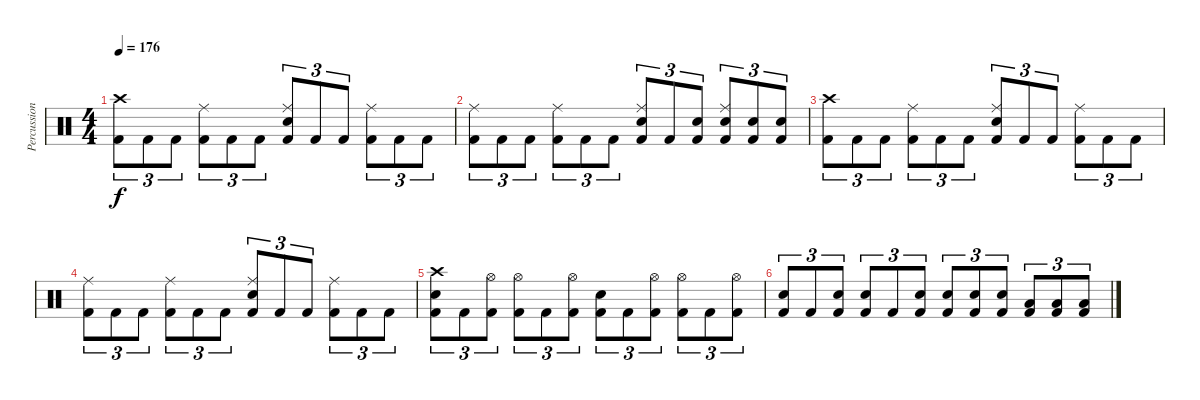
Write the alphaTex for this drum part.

\track ("Percussion" "Percussion") {instrument percussion}
\staff {score}
\articulation defaults
\ts (4 4)
\tempo 176
\clef neutral
\ks c
("Crash high (hit)" "Kick (hit) 2").8{tu (3 2) dy f} "Kick (hit) 2".8{tu (3 2)} "Kick (hit) 2".8{tu (3 2)} ("Ride (middle)" "Kick (hit) 2").8{tu (3 2)} "Kick (hit) 2".8{tu (3 2)} "Kick (hit) 2".8{tu (3 2)} ("Ride (middle)" "Snare (hit) 2" "Kick (hit) 2").8{tu (3 2)} "Kick (hit) 2".8{tu (3 2)} "Kick (hit) 2".8{tu (3 2)} ("Ride (middle)" "Kick (hit) 2").8{tu (3 2)} "Kick (hit) 2".8{tu (3 2)} "Kick (hit) 2".8{tu (3 2)} |
("Ride (middle)" "Kick (hit) 2").8{tu (3 2)} "Kick (hit) 2".8{tu (3 2)} "Kick (hit) 2".8{tu (3 2)} ("Ride (middle)" "Kick (hit) 2").8{tu (3 2)} "Kick (hit) 2".8{tu (3 2)} "Kick (hit) 2".8{tu (3 2)} ("Ride (middle)" "Snare (hit) 2" "Kick (hit) 2").8{tu (3 2)} "Kick (hit) 2".8{tu (3 2)} ("Snare (hit) 2" "Kick (hit) 2").8{tu (3 2)} ("Ride (middle)" "Snare (hit) 2" "Kick (hit) 2").8{tu (3 2)} ("Snare (hit) 2" "Kick (hit) 2").8{tu (3 2)} ("Snare (hit) 2" "Kick (hit) 2").8{tu (3 2)} |
("Crash high (hit)" "Kick (hit) 2").8{tu (3 2) volume 0} "Kick (hit) 2".8{tu (3 2)} "Kick (hit) 2".8{tu (3 2)} ("Ride (middle)" "Kick (hit) 2").8{tu (3 2)} "Kick (hit) 2".8{tu (3 2)} "Kick (hit) 2".8{tu (3 2)} ("Ride (middle)" "Snare (hit) 2" "Kick (hit) 2").8{tu (3 2)} "Kick (hit) 2".8{tu (3 2)} "Kick (hit) 2".8{tu (3 2)} ("Ride (middle)" "Kick (hit) 2").8{tu (3 2)} "Kick (hit) 2".8{tu (3 2)} "Kick (hit) 2".8{tu (3 2)} |
("Ride (middle)" "Kick (hit) 2").8{tu (3 2)} "Kick (hit) 2".8{tu (3 2)} "Kick (hit) 2".8{tu (3 2)} ("Ride (middle)" "Kick (hit) 2").8{tu (3 2)} "Kick (hit) 2".8{tu (3 2)} "Kick (hit) 2".8{tu (3 2)} ("Ride (middle)" "Snare (hit) 2" "Kick (hit) 2").8{tu (3 2)} "Kick (hit) 2".8{tu (3 2)} "Kick (hit) 2".8{tu (3 2)} ("Ride (middle)" "Kick (hit) 2").8{tu (3 2)} "Kick (hit) 2".8{tu (3 2)} "Kick (hit) 2".8{tu (3 2)} |
("Crash high (hit)" "Snare (hit) 2" "Kick (hit) 2").8{tu (3 2)} "Kick (hit) 2".8{tu (3 2)} ("Hi-Hat (open)" "Kick (hit) 2").8{tu (3 2)} ("Hi-Hat (open)" "Kick (hit) 2").8{tu (3 2)} "Kick (hit) 2".8{tu (3 2)} ("Hi-Hat (open)" "Kick (hit) 2").8{tu (3 2)} ("Snare (hit) 2" "Kick (hit) 2").8{tu (3 2)} "Kick (hit) 2".8{tu (3 2)} ("Hi-Hat (open)" "Kick (hit) 2").8{tu (3 2)} ("Hi-Hat (open)" "Kick (hit) 2").8{tu (3 2)} "Kick (hit) 2".8{tu (3 2)} ("Hi-Hat (open)" "Kick (hit) 2").8{tu (3 2)} |
("Snare (hit) 2" "Kick (hit) 2").8{tu (3 2)} "Kick (hit) 2".8{tu (3 2)} ("Snare (hit) 2" "Kick (hit) 2").8{tu (3 2)} ("Snare (hit) 2" "Kick (hit) 2").8{tu (3 2)} "Kick (hit) 2".8{tu (3 2)} ("Snare (hit) 2" "Kick (hit) 2").8{tu (3 2)} ("Snare (hit) 2" "Kick (hit) 2").8{tu (3 2)} ("Snare (hit) 2" "Kick (hit) 2").8{tu (3 2)} ("Snare (hit) 2" "Kick (hit) 2").8{tu (3 2)} ("Low Floor Tom (hit)" "Kick (hit) 2").8{tu (3 2)} ("Low Floor Tom (hit)" "Kick (hit) 2").8{tu (3 2)} ("Low Floor Tom (hit)" "Kick (hit) 2").8{tu (3 2)}
